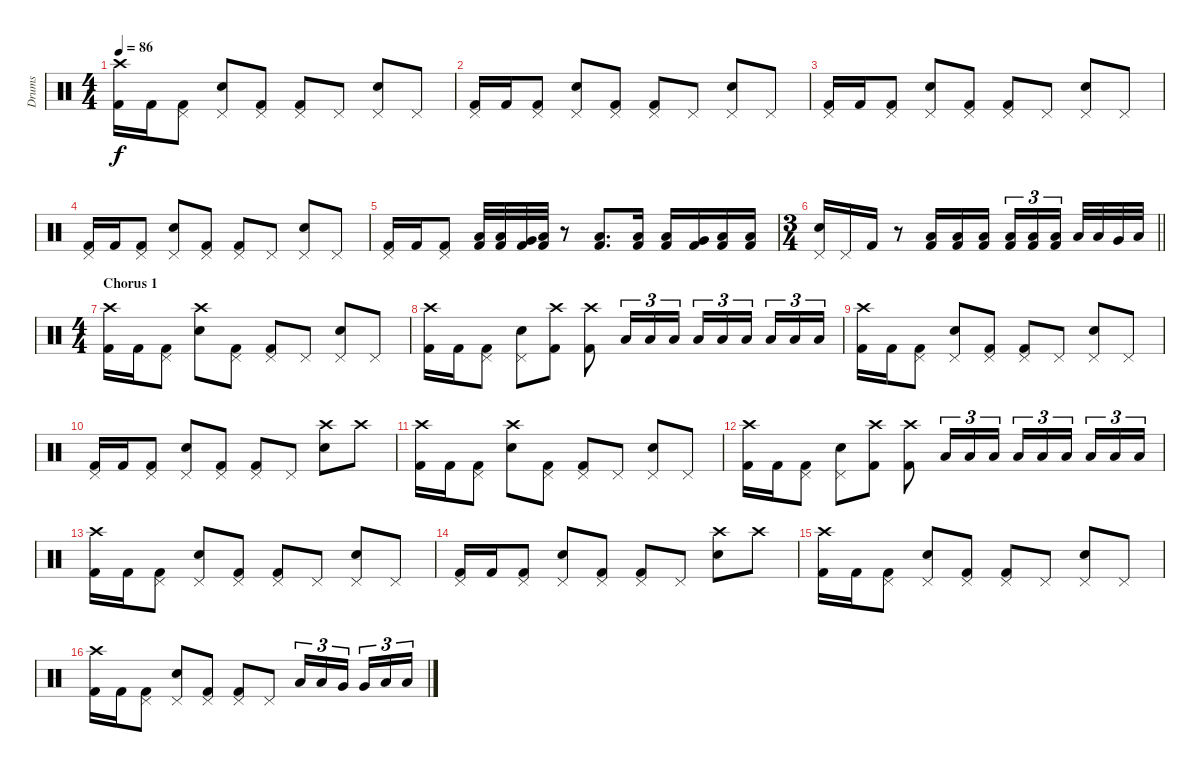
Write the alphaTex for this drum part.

\track ("Drums" "Drums") {instrument percussion}
\staff {score}
\articulation defaults
\ts (4 4)
\tempo 86
\clef neutral
\ks c
("Crash high (hit)" "Kick (hit) 2").16{dy f} "Kick (hit) 2".16 ("Pedal Hi-Hat (hit)" "Kick (hit) 2").8 ("Pedal Hi-Hat (hit)" "Snare (hit) 2").8 ("Pedal Hi-Hat (hit)" "Kick (hit) 2").8 ("Pedal Hi-Hat (hit)" "Kick (hit) 2").8 "Pedal Hi-Hat (hit)".8 ("Pedal Hi-Hat (hit)" "Snare (hit) 2").8 "Pedal Hi-Hat (hit)".8 |
("Pedal Hi-Hat (hit)" "Kick (hit) 2").16 "Kick (hit) 2".16 ("Pedal Hi-Hat (hit)" "Kick (hit) 2").8 ("Pedal Hi-Hat (hit)" "Snare (hit) 2").8 ("Pedal Hi-Hat (hit)" "Kick (hit) 2").8 ("Pedal Hi-Hat (hit)" "Kick (hit) 2").8 "Pedal Hi-Hat (hit)".8 ("Pedal Hi-Hat (hit)" "Snare (hit) 2").8 "Pedal Hi-Hat (hit)".8 |
("Pedal Hi-Hat (hit)" "Kick (hit) 2").16 "Kick (hit) 2".16 ("Pedal Hi-Hat (hit)" "Kick (hit) 2").8 ("Pedal Hi-Hat (hit)" "Snare (hit) 2").8 ("Pedal Hi-Hat (hit)" "Kick (hit) 2").8 ("Pedal Hi-Hat (hit)" "Kick (hit) 2").8 "Pedal Hi-Hat (hit)".8 ("Pedal Hi-Hat (hit)" "Snare (hit) 2").8 "Pedal Hi-Hat (hit)".8 |
("Pedal Hi-Hat (hit)" "Kick (hit) 2").16 "Kick (hit) 2".16 ("Pedal Hi-Hat (hit)" "Kick (hit) 2").8 ("Pedal Hi-Hat (hit)" "Snare (hit) 2").8 ("Pedal Hi-Hat (hit)" "Kick (hit) 2").8 ("Pedal Hi-Hat (hit)" "Kick (hit) 2").8 "Pedal Hi-Hat (hit)".8 ("Pedal Hi-Hat (hit)" "Snare (hit) 2").8 "Pedal Hi-Hat (hit)".8 |
("Pedal Hi-Hat (hit)" "Kick (hit) 2").16 "Kick (hit) 2".16 ("Pedal Hi-Hat (hit)" "Kick (hit) 2").8 ("Low Tom (hit)" "Kick (hit) 2").32 ("Low Tom (hit)" "Kick (hit) 2").32 ("Very Low Tom (hit)" "Kick (hit) 2").32 ("Low Floor Tom (hit)" "Kick (hit) 2").32 r.8 ("Low Tom (hit)" "Kick (hit) 2").8{d} ("Low Tom (hit)" "Kick (hit) 2").16 ("Low Tom (hit)" "Kick (hit) 2").16 ("Very Low Tom (hit)" "Kick (hit) 2").16 ("Low Floor Tom (hit)" "Kick (hit) 2").16 ("Low Floor Tom (hit)" "Kick (hit) 2").16 |
\ts (3 4)
\barLineRight lightlight
("Pedal Hi-Hat (hit)" "Snare (hit) 2").16 "Pedal Hi-Hat (hit)".16 "Kick (hit) 2".16 r.8 ("Low Tom (hit)" "Kick (hit) 2").16 ("Low Tom (hit)" "Kick (hit) 2").16 ("Low Tom (hit)" "Kick (hit) 2").16 ("Low Tom (hit)" "Kick (hit) 2").16{tu (3 2)} ("Low Tom (hit)" "Kick (hit) 2").16{tu (3 2)} ("Low Tom (hit)" "Kick (hit) 2").16{tu (3 2) beam splitsecondary} "Low Tom (hit)".32 "Low Tom (hit)".32 "Very Low Tom (hit)".32 "Low Floor Tom (hit)".32 |
\ts (4 4)
\section ("" "Chorus 1")
("Crash high (hit)" "Kick (hit) 2").16 "Kick (hit) 2".16 ("Pedal Hi-Hat (hit)" "Kick (hit) 2").8 ("Crash high (hit)" "Snare (hit) 2").8 ("Pedal Hi-Hat (hit)" "Kick (hit) 2").8 ("Pedal Hi-Hat (hit)" "Kick (hit) 2").8 "Pedal Hi-Hat (hit)".8 ("Pedal Hi-Hat (hit)" "Snare (hit) 2").8 "Pedal Hi-Hat (hit)".8 |
("Crash high (hit)" "Kick (hit) 2").16 "Kick (hit) 2".16 ("Pedal Hi-Hat (hit)" "Kick (hit) 2").8 ("Pedal Hi-Hat (hit)" "Snare (hit) 2").8 ("Crash high (hit)" "Kick (hit) 2").8 ("Crash high (hit)" "Kick (hit) 2").8 "Low Tom (hit)".16{tu (3 2)} "Low Tom (hit)".16{tu (3 2)} "Low Tom (hit)".16{tu (3 2)} "Low Tom (hit)".16{tu (3 2)} "Low Tom (hit)".16{tu (3 2)} "Low Tom (hit)".16{tu (3 2) beam splitsecondary} "Low Tom (hit)".16{tu (3 2)} "Low Tom (hit)".16{tu (3 2)} "Low Tom (hit)".16{tu (3 2)} |
("Crash high (hit)" "Kick (hit) 2").16 "Kick (hit) 2".16 ("Pedal Hi-Hat (hit)" "Kick (hit) 2").8 ("Pedal Hi-Hat (hit)" "Snare (hit) 2").8 ("Pedal Hi-Hat (hit)" "Kick (hit) 2").8 ("Pedal Hi-Hat (hit)" "Kick (hit) 2").8 "Pedal Hi-Hat (hit)".8 ("Pedal Hi-Hat (hit)" "Snare (hit) 2").8 "Pedal Hi-Hat (hit)".8 |
("Pedal Hi-Hat (hit)" "Kick (hit) 2").16 "Kick (hit) 2".16 ("Pedal Hi-Hat (hit)" "Kick (hit) 2").8 ("Pedal Hi-Hat (hit)" "Snare (hit) 2").8 ("Pedal Hi-Hat (hit)" "Kick (hit) 2").8 ("Pedal Hi-Hat (hit)" "Kick (hit) 2").8 "Pedal Hi-Hat (hit)".8 ("Crash high (hit)" "Snare (hit) 2").8 "Crash high (hit)".8 |
("Crash high (hit)" "Kick (hit) 2").16 "Kick (hit) 2".16 ("Pedal Hi-Hat (hit)" "Kick (hit) 2").8 ("Crash high (hit)" "Snare (hit) 2").8 ("Pedal Hi-Hat (hit)" "Kick (hit) 2").8 ("Pedal Hi-Hat (hit)" "Kick (hit) 2").8 "Pedal Hi-Hat (hit)".8 ("Pedal Hi-Hat (hit)" "Snare (hit) 2").8 "Pedal Hi-Hat (hit)".8 |
("Crash high (hit)" "Kick (hit) 2").16 "Kick (hit) 2".16 ("Pedal Hi-Hat (hit)" "Kick (hit) 2").8 ("Pedal Hi-Hat (hit)" "Snare (hit) 2").8 ("Crash high (hit)" "Kick (hit) 2").8 ("Crash high (hit)" "Kick (hit) 2").8 "Low Tom (hit)".16{tu (3 2)} "Low Tom (hit)".16{tu (3 2)} "Low Tom (hit)".16{tu (3 2)} "Low Tom (hit)".16{tu (3 2)} "Low Tom (hit)".16{tu (3 2)} "Low Tom (hit)".16{tu (3 2) beam splitsecondary} "Low Tom (hit)".16{tu (3 2)} "Low Tom (hit)".16{tu (3 2)} "Low Tom (hit)".16{tu (3 2)} |
("Crash high (hit)" "Kick (hit) 2").16 "Kick (hit) 2".16 ("Pedal Hi-Hat (hit)" "Kick (hit) 2").8 ("Pedal Hi-Hat (hit)" "Snare (hit) 2").8 ("Pedal Hi-Hat (hit)" "Kick (hit) 2").8 ("Pedal Hi-Hat (hit)" "Kick (hit) 2").8 "Pedal Hi-Hat (hit)".8 ("Pedal Hi-Hat (hit)" "Snare (hit) 2").8 "Pedal Hi-Hat (hit)".8 |
("Pedal Hi-Hat (hit)" "Kick (hit) 2").16 "Kick (hit) 2".16 ("Pedal Hi-Hat (hit)" "Kick (hit) 2").8 ("Pedal Hi-Hat (hit)" "Snare (hit) 2").8 ("Pedal Hi-Hat (hit)" "Kick (hit) 2").8 ("Pedal Hi-Hat (hit)" "Kick (hit) 2").8 "Pedal Hi-Hat (hit)".8 ("Crash high (hit)" "Snare (hit) 2").8 "Crash high (hit)".8 |
("Crash high (hit)" "Kick (hit) 2").16 "Kick (hit) 2".16 ("Pedal Hi-Hat (hit)" "Kick (hit) 2").8 ("Pedal Hi-Hat (hit)" "Snare (hit) 2").8 ("Pedal Hi-Hat (hit)" "Kick (hit) 2").8 ("Pedal Hi-Hat (hit)" "Kick (hit) 2").8 "Pedal Hi-Hat (hit)".8 ("Pedal Hi-Hat (hit)" "Snare (hit) 2").8 "Pedal Hi-Hat (hit)".8 |
("Crash high (hit)" "Kick (hit) 2").16 "Kick (hit) 2".16 ("Pedal Hi-Hat (hit)" "Kick (hit) 2").8 ("Pedal Hi-Hat (hit)" "Snare (hit) 2").8 ("Pedal Hi-Hat (hit)" "Kick (hit) 2").8 ("Pedal Hi-Hat (hit)" "Kick (hit) 2").8 "Pedal Hi-Hat (hit)".8 "Low Tom (hit)".16{tu (3 2)} "Low Tom (hit)".16{tu (3 2)} "Very Low Tom (hit)".16{tu (3 2) beam splitsecondary} "Very Low Tom (hit)".16{tu (3 2)} "Low Floor Tom (hit)".16{tu (3 2)} "Low Floor Tom (hit)".16{tu (3 2)}
